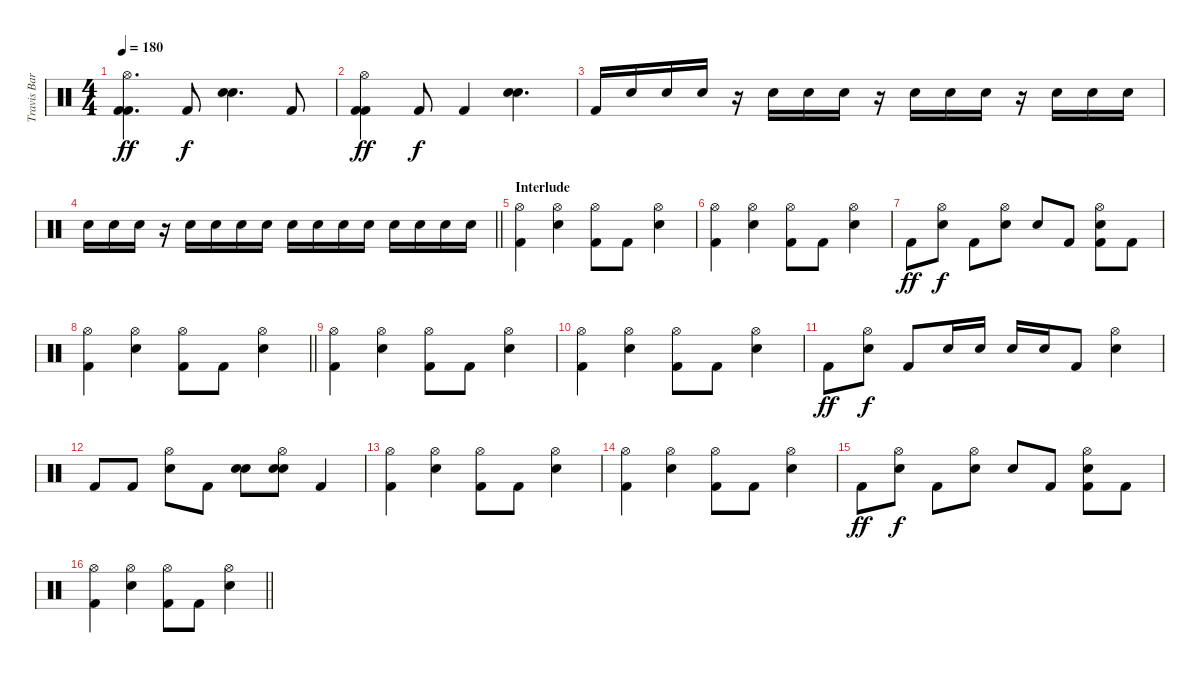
\track ("Travis Barker" "Travis Bar") {instrument percussion}
\staff {score}
\articulation defaults
\ts (4 4)
\tempo 180
\clef neutral
\ks c
("Hi-Hat (open)" "Kick (hit) 2" "Kick (hit) 2").4{d dy ff volume 16} "Kick (hit) 2".8{dy f} ("Electric Snare (hit)" "Electric Snare (hit)").4{d} "Kick (hit) 2".8 |
("Hi-Hat (open)" "Kick (hit) 2" "Kick (hit) 2").4{dy ff} "Kick (hit) 2".8{dy f} "Kick (hit) 2".4 ("Electric Snare (hit)" "Electric Snare (hit)").4{d} |
"Kick (hit) 2".16 "Electric Snare (hit)".16{volume 6} "Electric Snare (hit)".16 "Electric Snare (hit)".16 r.16 "Electric Snare (hit)".16{volume 7} "Electric Snare (hit)".16 "Electric Snare (hit)".16 r.16 "Electric Snare (hit)".16{volume 9} "Electric Snare (hit)".16 "Electric Snare (hit)".16 r.16 "Electric Snare (hit)".16{volume 10} "Electric Snare (hit)".16 "Electric Snare (hit)".16 |
\barLineRight lightlight "Electric Snare (hit)".16{volume 12} "Electric Snare (hit)".16 "Electric Snare (hit)".16
r.16 "Electric Snare (hit)".16{volume 14} "Electric Snare (hit)".16 "Electric Snare (hit)".16 "Electric Snare (hit)".16 "Electric Snare (hit)".16{volume 16} "Electric Snare (hit)".16 "Electric Snare (hit)".16 "Electric Snare (hit)".16 "Electric Snare (hit)".16 "Electric Snare (hit)".16 "Electric Snare (hit)".16 "Electric Snare (hit)".16 |
\section ("" "Interlude")
("Hi-Hat (open)" "Kick (hit) 2").4 ("Hi-Hat (open)" "Electric Snare (hit)").4 ("Hi-Hat (open)" "Kick (hit) 2").8 "Kick (hit) 2".8 ("Hi-Hat (open)" "Electric Snare (hit)").4 |
("Hi-Hat (open)" "Kick (hit) 2").4 ("Hi-Hat (open)" "Electric Snare (hit)").4 ("Hi-Hat (open)" "Kick (hit) 2").8 "Kick (hit) 2".8 ("Hi-Hat (open)" "Electric Snare (hit)").4 |
"Kick (hit) 2".8{dy ff} ("Hi-Hat (open)" "Electric Snare (hit)").8{dy f} "Kick (hit) 2".8 ("Hi-Hat (open)" "Electric Snare (hit)").8 "Electric Snare (hit)".8 "Kick (hit) 2".8 ("Hi-Hat (open)" "Electric Snare (hit)" "Kick (hit) 2").8 "Kick (hit) 2".8 |
\barLineRight lightlight
("Hi-Hat (open)" "Kick (hit) 2").4 ("Hi-Hat (open)" "Electric Snare (hit)").4 ("Hi-Hat (open)" "Kick (hit) 2").8 "Kick (hit) 2".8 ("Hi-Hat (open)" "Electric Snare (hit)").4 |
("Hi-Hat (open)" "Kick (hit) 2").4 ("Hi-Hat (open)" "Electric Snare (hit)").4 ("Hi-Hat (open)" "Kick (hit) 2").8 "Kick (hit) 2".8 ("Hi-Hat (open)" "Electric Snare (hit)").4 |
("Hi-Hat (open)" "Kick (hit) 2").4 ("Hi-Hat (open)" "Electric Snare (hit)").4 ("Hi-Hat (open)" "Kick (hit) 2").8 "Kick (hit) 2".8 ("Hi-Hat (open)" "Electric Snare (hit)").4 |
"Kick (hit) 2".8{dy ff} ("Hi-Hat (open)" "Electric Snare (hit)").8{dy f} "Kick (hit) 2".8 "Electric Snare (hit)".16 "Electric Snare (hit)".16 "Electric Snare (hit)".16 "Electric Snare (hit)".16 "Kick (hit) 2".8 ("Hi-Hat (open)" "Electric Snare (hit)").4 |
"Kick (hit) 2".8 "Kick (hit) 2".8 ("Hi-Hat (open)" "Electric Snare (hit)").8 "Kick (hit) 2".8 ("Electric Snare (hit)" "Electric Snare (hit)").8 ("Hi-Hat (open)" "Electric Snare (hit)" "Electric Snare (hit)").8 "Kick (hit) 2".4 |
("Hi-Hat (open)" "Kick (hit) 2").4 ("Hi-Hat (open)" "Electric Snare (hit)").4 ("Hi-Hat (open)" "Kick (hit) 2").8 "Kick (hit) 2".8 ("Hi-Hat (open)" "Electric Snare (hit)").4 |
("Hi-Hat (open)" "Kick (hit) 2").4 ("Hi-Hat (open)" "Electric Snare (hit)").4 ("Hi-Hat (open)" "Kick (hit) 2").8 "Kick (hit) 2".8 ("Hi-Hat (open)" "Electric Snare (hit)").4 |
"Kick (hit) 2".8{dy ff} ("Hi-Hat (open)" "Electric Snare (hit)").8{dy f} "Kick (hit) 2".8 ("Hi-Hat (open)" "Electric Snare (hit)").8 "Electric Snare (hit)".8 "Kick (hit) 2".8 ("Hi-Hat (open)" "Electric Snare (hit)" "Kick (hit) 2").8 "Kick (hit) 2".8 |
\barLineRight lightlight
("Hi-Hat (open)" "Kick (hit) 2").4 ("Hi-Hat (open)" "Electric Snare (hit)").4 ("Hi-Hat (open)" "Kick (hit) 2").8 "Kick (hit) 2".8 ("Hi-Hat (open)" "Electric Snare (hit)").4
